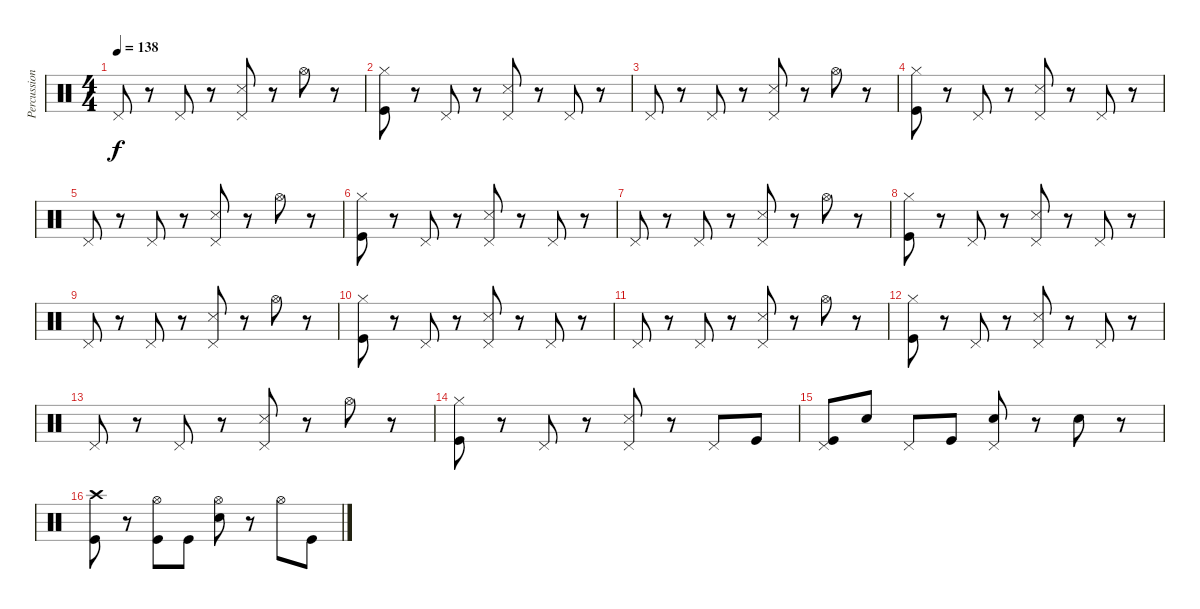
\track ("Percussion" "Percussion") {instrument percussion}
\staff {score}
\articulation defaults
\ts (4 4)
\tempo 138
\clef neutral
\ks c "Pedal Hi-Hat (hit)".8{dy f}
r.8 "Pedal Hi-Hat (hit)".8 r.8 ("Snare (side stick) 3" "Pedal Hi-Hat (hit)").8 r.8 "Hi-Hat (open)".8 r.8 |
("Hi-Hat (closed)" "Kick (hit)").8 r.8 "Pedal Hi-Hat (hit)".8 r.8 ("Snare (side stick) 3" "Pedal Hi-Hat (hit)").8 r.8 "Pedal Hi-Hat (hit)".8 r.8 |
"Pedal Hi-Hat (hit)".8 r.8 "Pedal Hi-Hat (hit)".8 r.8 ("Snare (side stick) 3" "Pedal Hi-Hat (hit)").8 r.8 "Hi-Hat (open)".8 r.8 |
("Hi-Hat (closed)" "Kick (hit)").8 r.8 "Pedal Hi-Hat (hit)".8 r.8 ("Snare (side stick) 3" "Pedal Hi-Hat (hit)").8 r.8 "Pedal Hi-Hat (hit)".8 r.8 |
"Pedal Hi-Hat (hit)".8 r.8 "Pedal Hi-Hat (hit)".8 r.8 ("Snare (side stick) 3" "Pedal Hi-Hat (hit)").8 r.8 "Hi-Hat (open)".8 r.8 |
("Hi-Hat (closed)" "Kick (hit)").8 r.8 "Pedal Hi-Hat (hit)".8 r.8 ("Snare (side stick) 3" "Pedal Hi-Hat (hit)").8 r.8 "Pedal Hi-Hat (hit)".8 r.8 |
"Pedal Hi-Hat (hit)".8 r.8 "Pedal Hi-Hat (hit)".8 r.8 ("Snare (side stick) 3" "Pedal Hi-Hat (hit)").8 r.8 "Hi-Hat (open)".8 r.8 |
("Hi-Hat (closed)" "Kick (hit)").8 r.8 "Pedal Hi-Hat (hit)".8 r.8 ("Snare (side stick) 3" "Pedal Hi-Hat (hit)").8 r.8 "Pedal Hi-Hat (hit)".8 r.8 |
"Pedal Hi-Hat (hit)".8 r.8 "Pedal Hi-Hat (hit)".8 r.8 ("Snare (side stick) 3" "Pedal Hi-Hat (hit)").8 r.8 "Hi-Hat (open)".8 r.8 |
("Hi-Hat (closed)" "Kick (hit)").8 r.8 "Pedal Hi-Hat (hit)".8 r.8 ("Snare (side stick) 3" "Pedal Hi-Hat (hit)").8 r.8 "Pedal Hi-Hat (hit)".8 r.8 |
"Pedal Hi-Hat (hit)".8 r.8 "Pedal Hi-Hat (hit)".8 r.8 ("Snare (side stick) 3" "Pedal Hi-Hat (hit)").8 r.8 "Hi-Hat (open)".8 r.8 |
("Hi-Hat (closed)" "Kick (hit)").8 r.8 "Pedal Hi-Hat (hit)".8 r.8 ("Snare (side stick) 3" "Pedal Hi-Hat (hit)").8 r.8 "Pedal Hi-Hat (hit)".8 r.8 |
"Pedal Hi-Hat (hit)".8 r.8 "Pedal Hi-Hat (hit)".8 r.8 ("Snare (side stick) 3" "Pedal Hi-Hat (hit)").8 r.8 "Hi-Hat (open)".8 r.8 |
("Hi-Hat (closed)" "Kick (hit)").8 r.8 "Pedal Hi-Hat (hit)".8 r.8 ("Snare (side stick) 3" "Pedal Hi-Hat (hit)").8 r.8 "Pedal Hi-Hat (hit)".8 "Kick (hit)".8 |
("Pedal Hi-Hat (hit)" "Kick (hit)").8 "Snare (hit) 2".8 "Pedal Hi-Hat (hit)".8 "Kick (hit)".8 ("Snare (hit) 2" "Pedal Hi-Hat (hit)").8 r.8 "Snare (hit) 2".8 r.8 |
("Crash high (hit)" "Kick (hit)").8 r.8 ("Hi-Hat (open)" "Kick (hit)").8 "Kick (hit)".8 ("Snare (hit) 2" "Hi-Hat (open)").8 r.8 "Hi-Hat (open)".8 "Kick (hit)".8
